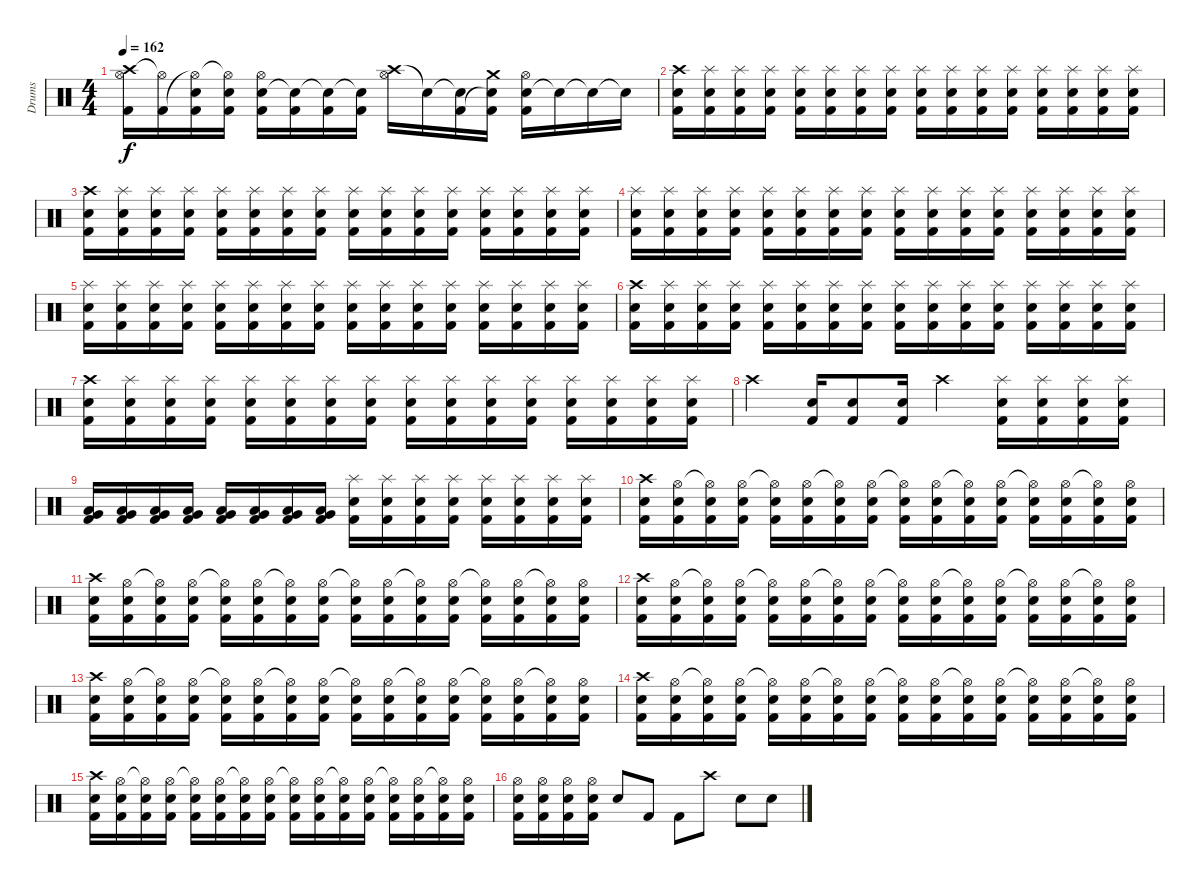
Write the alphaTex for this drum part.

\track ("Drums" "Drums") {instrument percussion}
\staff {score}
\articulation defaults
\ts (4 4)
\tempo 162
\clef neutral
\ks c
("Crash high (hit)" "Hi-Hat (open)" "Kick (hit) 2").16{dy f} ("Hi-Hat (open)"{t} "Kick (hit) 2").16 ("Electric Snare (hit)" "Hi-Hat (open)"{t} "Kick (hit) 2").16 ("Electric Snare (hit)" "Hi-Hat (open)"{t} "Kick (hit) 2").16 ("Electric Snare (hit)" "Hi-Hat (open)" "Kick (hit) 2").16 ("Snare (hit)"{t} "Kick (hit) 2").16 ("Snare (hit)"{t} "Kick (hit) 2").16 ("Snare (hit)"{t} "Kick (hit) 2").16 ("Crash high (hit)" "Hi-Hat (open)").16 "Snare (hit)"{t}.16 ("Snare (hit)"{t} "Kick (hit) 2").16 ("Crash medium (hit)" "Snare (hit)"{t} "Kick (hit) 2").16 ("Electric Snare (hit)" "Hi-Hat (open)" "Kick (hit) 2").16 "Snare (hit)"{t}.16 "Snare (hit)"{t}.16 "Snare (hit)"{t}.16 |
("Crash high (hit)" "Electric Snare (hit)" "Kick (hit) 2").16 ("Splash (hit)" "Electric Snare (hit)" "Kick (hit) 2").16 ("Splash (hit)" "Electric Snare (hit)" "Kick (hit) 2").16 ("Splash (hit)" "Electric Snare (hit)" "Kick (hit) 2").16 ("Splash (hit)" "Electric Snare (hit)" "Kick (hit) 2").16 ("Splash (hit)" "Electric Snare (hit)" "Kick (hit) 2").16 ("Splash (hit)" "Electric Snare (hit)" "Kick (hit) 2").16 ("Splash (hit)" "Electric Snare (hit)" "Kick (hit) 2").16 ("Splash (hit)" "Electric Snare (hit)" "Kick (hit) 2").16 ("Splash (hit)" "Electric Snare (hit)" "Kick (hit) 2").16 ("Splash (hit)" "Electric Snare (hit)" "Kick (hit) 2").16 ("Splash (hit)" "Electric Snare (hit)" "Kick (hit) 2").16 ("Splash (hit)" "Electric Snare (hit)" "Kick (hit) 2").16 ("Splash (hit)" "Electric Snare (hit)" "Kick (hit) 2").16 ("Splash (hit)" "Electric Snare (hit)" "Kick (hit) 2").16 ("Splash (hit)" "Electric Snare (hit)" "Kick (hit) 2").16 |
("Crash high (hit)" "Electric Snare (hit)" "Kick (hit) 2").16 ("Splash (hit)" "Electric Snare (hit)" "Kick (hit) 2").16 ("Splash (hit)" "Electric Snare (hit)" "Kick (hit) 2").16 ("Splash (hit)" "Electric Snare (hit)" "Kick (hit) 2").16 ("Splash (hit)" "Electric Snare (hit)" "Kick (hit) 2").16 ("Splash (hit)" "Electric Snare (hit)" "Kick (hit) 2").16 ("Splash (hit)" "Electric Snare (hit)" "Kick (hit) 2").16 ("Splash (hit)" "Electric Snare (hit)" "Kick (hit) 2").16 ("Splash (hit)" "Electric Snare (hit)" "Kick (hit) 2").16 ("Splash (hit)" "Electric Snare (hit)" "Kick (hit) 2").16 ("Splash (hit)" "Electric Snare (hit)" "Kick (hit) 2").16 ("Splash (hit)" "Electric Snare (hit)" "Kick (hit) 2").16 ("Splash (hit)" "Electric Snare (hit)" "Kick (hit) 2").16 ("Splash (hit)" "Electric Snare (hit)" "Kick (hit) 2").16 ("Splash (hit)" "Electric Snare (hit)" "Kick (hit) 2").16 ("Splash (hit)" "Electric Snare (hit)" "Kick (hit) 2").16 |
("Splash (hit)" "Electric Snare (hit)" "Kick (hit) 2").16 ("Splash (hit)" "Electric Snare (hit)" "Kick (hit) 2").16 ("Splash (hit)" "Electric Snare (hit)" "Kick (hit) 2").16 ("Splash (hit)" "Electric Snare (hit)" "Kick (hit) 2").16 ("Splash (hit)" "Electric Snare (hit)" "Kick (hit) 2").16 ("Splash (hit)" "Electric Snare (hit)" "Kick (hit) 2").16 ("Splash (hit)" "Electric Snare (hit)" "Kick (hit) 2").16 ("Splash (hit)" "Electric Snare (hit)" "Kick (hit) 2").16 ("Splash (hit)" "Electric Snare (hit)" "Kick (hit) 2").16 ("Splash (hit)" "Electric Snare (hit)" "Kick (hit) 2").16 ("Splash (hit)" "Electric Snare (hit)" "Kick (hit) 2").16 ("Splash (hit)" "Electric Snare (hit)" "Kick (hit) 2").16 ("Splash (hit)" "Electric Snare (hit)" "Kick (hit) 2").16 ("Splash (hit)" "Electric Snare (hit)" "Kick (hit) 2").16 ("Splash (hit)" "Electric Snare (hit)" "Kick (hit) 2").16 ("Splash (hit)" "Electric Snare (hit)" "Kick (hit) 2").16 |
("Splash (hit)" "Electric Snare (hit)" "Kick (hit) 2").16 ("Splash (hit)" "Electric Snare (hit)" "Kick (hit) 2").16 ("Splash (hit)" "Electric Snare (hit)" "Kick (hit) 2").16 ("Splash (hit)" "Electric Snare (hit)" "Kick (hit) 2").16 ("Splash (hit)" "Electric Snare (hit)" "Kick (hit) 2").16 ("Splash (hit)" "Electric Snare (hit)" "Kick (hit) 2").16 ("Splash (hit)" "Electric Snare (hit)" "Kick (hit) 2").16 ("Splash (hit)" "Electric Snare (hit)" "Kick (hit) 2").16 ("Splash (hit)" "Electric Snare (hit)" "Kick (hit) 2").16 ("Splash (hit)" "Electric Snare (hit)" "Kick (hit) 2").16 ("Splash (hit)" "Electric Snare (hit)" "Kick (hit) 2").16 ("Splash (hit)" "Electric Snare (hit)" "Kick (hit) 2").16 ("Splash (hit)" "Electric Snare (hit)" "Kick (hit) 2").16 ("Splash (hit)" "Electric Snare (hit)" "Kick (hit) 2").16 ("Splash (hit)" "Electric Snare (hit)" "Kick (hit) 2").16 ("Splash (hit)" "Electric Snare (hit)" "Kick (hit) 2").16 |
("Crash high (hit)" "Electric Snare (hit)" "Kick (hit) 2").16 ("Splash (hit)" "Electric Snare (hit)" "Kick (hit) 2").16 ("Splash (hit)" "Electric Snare (hit)" "Kick (hit) 2").16 ("Splash (hit)" "Electric Snare (hit)" "Kick (hit) 2").16 ("Splash (hit)" "Electric Snare (hit)" "Kick (hit) 2").16 ("Splash (hit)" "Electric Snare (hit)" "Kick (hit) 2").16 ("Splash (hit)" "Electric Snare (hit)" "Kick (hit) 2").16 ("Splash (hit)" "Electric Snare (hit)" "Kick (hit) 2").16 ("Splash (hit)" "Electric Snare (hit)" "Kick (hit) 2").16 ("Splash (hit)" "Electric Snare (hit)" "Kick (hit) 2").16 ("Splash (hit)" "Electric Snare (hit)" "Kick (hit) 2").16 ("Splash (hit)" "Electric Snare (hit)" "Kick (hit) 2").16 ("Splash (hit)" "Electric Snare (hit)" "Kick (hit) 2").16 ("Splash (hit)" "Electric Snare (hit)" "Kick (hit) 2").16 ("Splash (hit)" "Electric Snare (hit)" "Kick (hit) 2").16 ("Splash (hit)" "Electric Snare (hit)" "Kick (hit) 2").16 |
("Crash high (hit)" "Electric Snare (hit)" "Kick (hit) 2").16 ("Splash (hit)" "Electric Snare (hit)" "Kick (hit) 2").16 ("Splash (hit)" "Electric Snare (hit)" "Kick (hit) 2").16 ("Splash (hit)" "Electric Snare (hit)" "Kick (hit) 2").16 ("Splash (hit)" "Electric Snare (hit)" "Kick (hit) 2").16 ("Splash (hit)" "Electric Snare (hit)" "Kick (hit) 2").16 ("Splash (hit)" "Electric Snare (hit)" "Kick (hit) 2").16 ("Splash (hit)" "Electric Snare (hit)" "Kick (hit) 2").16 ("Splash (hit)" "Electric Snare (hit)" "Kick (hit) 2").16 ("Splash (hit)" "Electric Snare (hit)" "Kick (hit) 2").16 ("Splash (hit)" "Electric Snare (hit)" "Kick (hit) 2").16 ("Splash (hit)" "Electric Snare (hit)" "Kick (hit) 2").16 ("Splash (hit)" "Electric Snare (hit)" "Kick (hit) 2").16 ("Splash (hit)" "Electric Snare (hit)" "Kick (hit) 2").16 ("Splash (hit)" "Electric Snare (hit)" "Kick (hit) 2").16 ("Splash (hit)" "Electric Snare (hit)" "Kick (hit) 2").16 |
"Crash high (hit)".4 ("Electric Snare (hit)" "Kick (hit) 2").16 ("Electric Snare (hit)" "Kick (hit) 2").8 ("Electric Snare (hit)" "Kick (hit) 2").16 "Crash high (hit)".4 ("Splash (hit)" "Electric Snare (hit)" "Kick (hit) 2").16 ("Splash (hit)" "Electric Snare (hit)" "Kick (hit) 2").16 ("Splash (hit)" "Electric Snare (hit)" "Kick (hit) 2").16 ("Splash (hit)" "Electric Snare (hit)" "Kick (hit) 2").16 |
("Low Tom (hit)" "Very Low Tom (hit)" "Kick (hit) 2").16 ("Low Tom (hit)" "Very Low Tom (hit)" "Kick (hit) 2").16 ("Low Tom (hit)" "Very Low Tom (hit)" "Kick (hit) 2").16 ("Low Tom (hit)" "Very Low Tom (hit)" "Kick (hit) 2").16 ("Low Tom (hit)" "Very Low Tom (hit)" "Kick (hit) 2").16 ("Low Tom (hit)" "Very Low Tom (hit)" "Kick (hit) 2").16 ("Low Tom (hit)" "Very Low Tom (hit)" "Kick (hit) 2").16 ("Low Tom (hit)" "Very Low Tom (hit)" "Kick (hit) 2").16 ("Splash (hit)" "Electric Snare (hit)" "Kick (hit) 2").16 ("Splash (hit)" "Electric Snare (hit)" "Kick (hit) 2").16 ("Splash (hit)" "Electric Snare (hit)" "Kick (hit) 2").16 ("Splash (hit)" "Electric Snare (hit)" "Kick (hit) 2").16 ("Splash (hit)" "Electric Snare (hit)" "Kick (hit) 2").16 ("Splash (hit)" "Electric Snare (hit)" "Kick (hit) 2").16 ("Splash (hit)" "Electric Snare (hit)" "Kick (hit) 2").16 ("Splash (hit)" "Electric Snare (hit)" "Kick (hit) 2").16 |
("Crash high (hit)" "Electric Snare (hit)" "Kick (hit) 2").16 ("Hi-Hat (open)" "Electric Snare (hit)" "Kick (hit) 2").16 ("Hi-Hat (open)"{t} "Electric Snare (hit)" "Kick (hit) 2").16 ("Hi-Hat (open)" "Electric Snare (hit)" "Kick (hit) 2").16 ("Hi-Hat (open)"{t} "Electric Snare (hit)" "Kick (hit) 2").16 ("Hi-Hat (open)" "Electric Snare (hit)" "Kick (hit) 2").16 ("Hi-Hat (open)"{t} "Electric Snare (hit)" "Kick (hit) 2").16 ("Hi-Hat (open)" "Electric Snare (hit)" "Kick (hit) 2").16 ("Hi-Hat (open)"{t} "Electric Snare (hit)" "Kick (hit) 2").16 ("Hi-Hat (open)" "Electric Snare (hit)" "Kick (hit) 2").16 ("Hi-Hat (open)"{t} "Electric Snare (hit)" "Kick (hit) 2").16 ("Hi-Hat (open)" "Electric Snare (hit)" "Kick (hit) 2").16 ("Hi-Hat (open)"{t} "Electric Snare (hit)" "Kick (hit) 2").16 ("Hi-Hat (open)" "Electric Snare (hit)" "Kick (hit) 2").16 ("Hi-Hat (open)"{t} "Electric Snare (hit)" "Kick (hit) 2").16 ("Hi-Hat (open)" "Electric Snare (hit)" "Kick (hit) 2").16 |
("Crash high (hit)" "Electric Snare (hit)" "Kick (hit) 2").16 ("Hi-Hat (open)" "Electric Snare (hit)" "Kick (hit) 2").16 ("Hi-Hat (open)"{t} "Electric Snare (hit)" "Kick (hit) 2").16 ("Hi-Hat (open)" "Electric Snare (hit)" "Kick (hit) 2").16 ("Hi-Hat (open)"{t} "Electric Snare (hit)" "Kick (hit) 2").16 ("Hi-Hat (open)" "Electric Snare (hit)" "Kick (hit) 2").16 ("Hi-Hat (open)"{t} "Electric Snare (hit)" "Kick (hit) 2").16 ("Hi-Hat (open)" "Electric Snare (hit)" "Kick (hit) 2").16 ("Hi-Hat (open)"{t} "Electric Snare (hit)" "Kick (hit) 2").16 ("Hi-Hat (open)" "Electric Snare (hit)" "Kick (hit) 2").16 ("Hi-Hat (open)"{t} "Electric Snare (hit)" "Kick (hit) 2").16 ("Hi-Hat (open)" "Electric Snare (hit)" "Kick (hit) 2").16 ("Hi-Hat (open)"{t} "Electric Snare (hit)" "Kick (hit) 2").16 ("Hi-Hat (open)" "Electric Snare (hit)" "Kick (hit) 2").16 ("Hi-Hat (open)"{t} "Electric Snare (hit)" "Kick (hit) 2").16 ("Hi-Hat (open)" "Electric Snare (hit)" "Kick (hit) 2").16 |
("Crash high (hit)" "Electric Snare (hit)" "Kick (hit) 2").16 ("Hi-Hat (open)" "Electric Snare (hit)" "Kick (hit) 2").16 ("Hi-Hat (open)"{t} "Electric Snare (hit)" "Kick (hit) 2").16 ("Hi-Hat (open)" "Electric Snare (hit)" "Kick (hit) 2").16 ("Hi-Hat (open)"{t} "Electric Snare (hit)" "Kick (hit) 2").16 ("Hi-Hat (open)" "Electric Snare (hit)" "Kick (hit) 2").16 ("Hi-Hat (open)"{t} "Electric Snare (hit)" "Kick (hit) 2").16 ("Hi-Hat (open)" "Electric Snare (hit)" "Kick (hit) 2").16 ("Hi-Hat (open)"{t} "Electric Snare (hit)" "Kick (hit) 2").16 ("Hi-Hat (open)" "Electric Snare (hit)" "Kick (hit) 2").16 ("Hi-Hat (open)"{t} "Electric Snare (hit)" "Kick (hit) 2").16 ("Hi-Hat (open)" "Electric Snare (hit)" "Kick (hit) 2").16 ("Hi-Hat (open)"{t} "Electric Snare (hit)" "Kick (hit) 2").16 ("Hi-Hat (open)" "Electric Snare (hit)" "Kick (hit) 2").16 ("Hi-Hat (open)"{t} "Electric Snare (hit)" "Kick (hit) 2").16 ("Hi-Hat (open)" "Electric Snare (hit)" "Kick (hit) 2").16 |
("Crash high (hit)" "Electric Snare (hit)" "Kick (hit) 2").16 ("Hi-Hat (open)" "Electric Snare (hit)" "Kick (hit) 2").16 ("Hi-Hat (open)"{t} "Electric Snare (hit)" "Kick (hit) 2").16 ("Hi-Hat (open)" "Electric Snare (hit)" "Kick (hit) 2").16 ("Hi-Hat (open)"{t} "Electric Snare (hit)" "Kick (hit) 2").16 ("Hi-Hat (open)" "Electric Snare (hit)" "Kick (hit) 2").16 ("Hi-Hat (open)"{t} "Electric Snare (hit)" "Kick (hit) 2").16 ("Hi-Hat (open)" "Electric Snare (hit)" "Kick (hit) 2").16 ("Hi-Hat (open)"{t} "Electric Snare (hit)" "Kick (hit) 2").16 ("Hi-Hat (open)" "Electric Snare (hit)" "Kick (hit) 2").16 ("Hi-Hat (open)"{t} "Electric Snare (hit)" "Kick (hit) 2").16 ("Hi-Hat (open)" "Electric Snare (hit)" "Kick (hit) 2").16 ("Hi-Hat (open)"{t} "Electric Snare (hit)" "Kick (hit) 2").16 ("Hi-Hat (open)" "Electric Snare (hit)" "Kick (hit) 2").16 ("Hi-Hat (open)"{t} "Electric Snare (hit)" "Kick (hit) 2").16 ("Hi-Hat (open)" "Electric Snare (hit)" "Kick (hit) 2").16 |
("Crash high (hit)" "Electric Snare (hit)" "Kick (hit) 2").16 ("Hi-Hat (open)" "Electric Snare (hit)" "Kick (hit) 2").16 ("Hi-Hat (open)"{t} "Electric Snare (hit)" "Kick (hit) 2").16 ("Hi-Hat (open)" "Electric Snare (hit)" "Kick (hit) 2").16 ("Hi-Hat (open)"{t} "Electric Snare (hit)" "Kick (hit) 2").16 ("Hi-Hat (open)" "Electric Snare (hit)" "Kick (hit) 2").16 ("Hi-Hat (open)"{t} "Electric Snare (hit)" "Kick (hit) 2").16 ("Hi-Hat (open)" "Electric Snare (hit)" "Kick (hit) 2").16 ("Hi-Hat (open)"{t} "Electric Snare (hit)" "Kick (hit) 2").16 ("Hi-Hat (open)" "Electric Snare (hit)" "Kick (hit) 2").16 ("Hi-Hat (open)"{t} "Electric Snare (hit)" "Kick (hit) 2").16 ("Hi-Hat (open)" "Electric Snare (hit)" "Kick (hit) 2").16 ("Hi-Hat (open)"{t} "Electric Snare (hit)" "Kick (hit) 2").16 ("Hi-Hat (open)" "Electric Snare (hit)" "Kick (hit) 2").16 ("Hi-Hat (open)"{t} "Electric Snare (hit)" "Kick (hit) 2").16 ("Hi-Hat (open)" "Electric Snare (hit)" "Kick (hit) 2").16 |
("Crash high (hit)" "Electric Snare (hit)" "Kick (hit) 2").16 ("Hi-Hat (open)" "Electric Snare (hit)" "Kick (hit) 2").16 ("Hi-Hat (open)"{t} "Electric Snare (hit)" "Kick (hit) 2").16 ("Hi-Hat (open)" "Electric Snare (hit)" "Kick (hit) 2").16 ("Hi-Hat (open)"{t} "Electric Snare (hit)" "Kick (hit) 2").16 ("Hi-Hat (open)" "Electric Snare (hit)" "Kick (hit) 2").16 ("Hi-Hat (open)"{t} "Electric Snare (hit)" "Kick (hit) 2").16 ("Hi-Hat (open)" "Electric Snare (hit)" "Kick (hit) 2").16 ("Hi-Hat (open)"{t} "Electric Snare (hit)" "Kick (hit) 2").16 ("Hi-Hat (open)" "Electric Snare (hit)" "Kick (hit) 2").16 ("Hi-Hat (open)"{t} "Electric Snare (hit)" "Kick (hit) 2").16 ("Hi-Hat (open)" "Electric Snare (hit)" "Kick (hit) 2").16 ("Hi-Hat (open)"{t} "Electric Snare (hit)" "Kick (hit) 2").16 ("Hi-Hat (open)" "Electric Snare (hit)" "Kick (hit) 2").16 ("Hi-Hat (open)"{t} "Electric Snare (hit)" "Kick (hit) 2").16 ("Hi-Hat (open)" "Electric Snare (hit)" "Kick (hit) 2").16 |
("Hi-Hat (open)" "Electric Snare (hit)" "Kick (hit) 2").16 ("Hi-Hat (open)" "Electric Snare (hit)" "Kick (hit) 2").16 ("Hi-Hat (open)" "Electric Snare (hit)" "Kick (hit) 2").16 ("Hi-Hat (open)" "Electric Snare (hit)" "Kick (hit) 2").16 "Electric Snare (hit)".8 "Kick (hit) 2".8 "Kick (hit) 2".8 "Crash high (hit)".8 "Electric Snare (hit)".8 "Electric Snare (hit)".8
